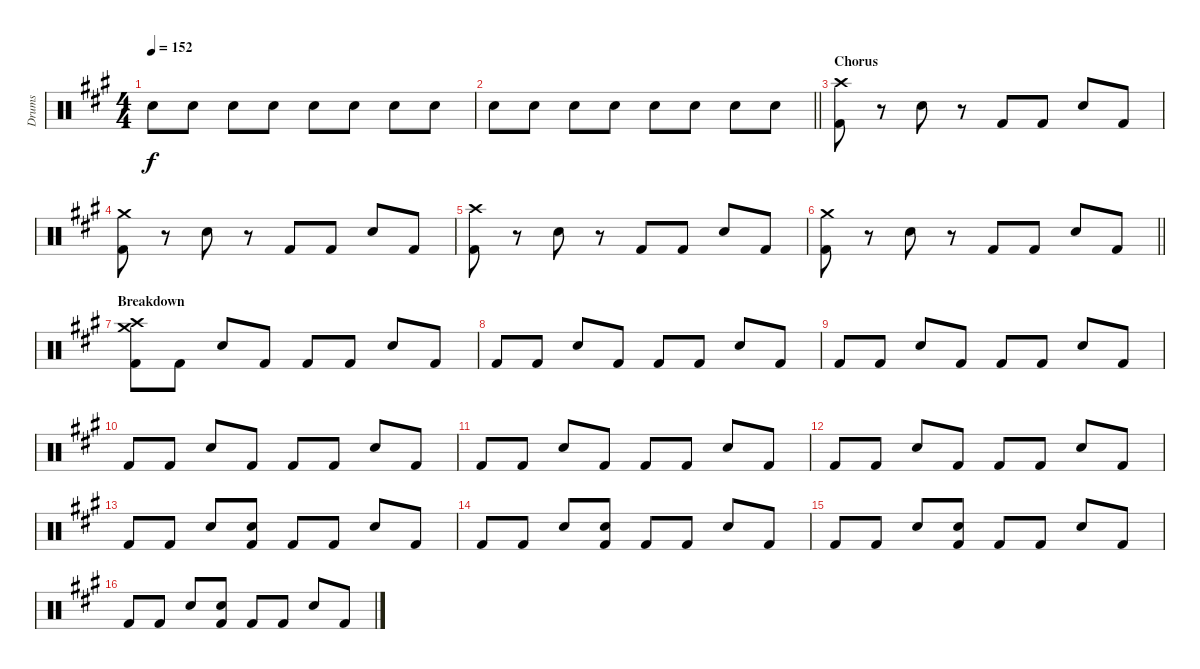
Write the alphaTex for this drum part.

\track ("Drums" "Drums") {instrument percussion}
\staff {score}
\articulation defaults
\ts (4 4)
\tempo 152
\clef neutral
\ks a "Snare (hit) 2".8{dy f} "Snare (hit) 2".8 "Snare (hit) 2".8 "Snare (hit) 2".8 "Snare (hit) 2".8 "Snare (hit) 2".8 "Snare (hit) 2".8 "Snare (hit) 2".8
|
\barLineRight lightlight "Snare (hit) 2".8 "Snare (hit) 2".8 "Snare (hit) 2".8 "Snare (hit) 2".8 "Snare (hit) 2".8 "Snare (hit) 2".8 "Snare (hit) 2".8 "Snare (hit) 2".8
|
\section ("" "Chorus")
("Crash high (hit)" "Kick (hit) 2").8 r.8 "Snare (hit) 2".8 r.8 "Kick (hit) 2".8 "Kick (hit) 2".8 "Snare (hit) 2".8 "Kick (hit) 2".8 |
("Crash medium (hit)" "Kick (hit) 2").8 r.8 "Snare (hit) 2".8 r.8 "Kick (hit) 2".8 "Kick (hit) 2".8 "Snare (hit) 2".8 "Kick (hit) 2".8 |
("Crash high (hit)" "Kick (hit) 2").8 r.8 "Snare (hit) 2".8 r.8 "Kick (hit) 2".8 "Kick (hit) 2".8 "Snare (hit) 2".8 "Kick (hit) 2".8 |
\barLineRight lightlight
("Crash medium (hit)" "Kick (hit) 2").8 r.8 "Snare (hit) 2".8 r.8 "Kick (hit) 2".8 "Kick (hit) 2".8 "Snare (hit) 2".8 "Kick (hit) 2".8 |
\section ("" "Breakdown")
("Crash high (hit)" "Crash medium (hit)" "Kick (hit) 2").8 "Kick (hit) 2".8 "Snare (hit) 2".8 "Kick (hit) 2".8 "Kick (hit) 2".8 "Kick (hit) 2".8 "Snare (hit) 2".8 "Kick (hit) 2".8 |
"Kick (hit) 2".8 "Kick (hit) 2".8 "Snare (hit) 2".8 "Kick (hit) 2".8 "Kick (hit) 2".8 "Kick (hit) 2".8 "Snare (hit) 2".8 "Kick (hit) 2".8 |
"Kick (hit) 2".8 "Kick (hit) 2".8 "Snare (hit) 2".8 "Kick (hit) 2".8 "Kick (hit) 2".8 "Kick (hit) 2".8 "Snare (hit) 2".8 "Kick (hit) 2".8 |
"Kick (hit) 2".8 "Kick (hit) 2".8 "Snare (hit) 2".8 "Kick (hit) 2".8 "Kick (hit) 2".8 "Kick (hit) 2".8 "Snare (hit) 2".8 "Kick (hit) 2".8 |
"Kick (hit) 2".8 "Kick (hit) 2".8 "Snare (hit) 2".8 "Kick (hit) 2".8 "Kick (hit) 2".8 "Kick (hit) 2".8 "Snare (hit) 2".8 "Kick (hit) 2".8 |
"Kick (hit) 2".8 "Kick (hit) 2".8 "Snare (hit) 2".8 "Kick (hit) 2".8 "Kick (hit) 2".8 "Kick (hit) 2".8 "Snare (hit) 2".8 "Kick (hit) 2".8 |
"Kick (hit) 2".8 "Kick (hit) 2".8 "Snare (hit) 2".8 ("Snare (hit) 2" "Kick (hit) 2").8 "Kick (hit) 2".8 "Kick (hit) 2".8 "Snare (hit) 2".8 "Kick (hit) 2".8 |
"Kick (hit) 2".8 "Kick (hit) 2".8 "Snare (hit) 2".8 ("Snare (hit) 2" "Kick (hit) 2").8 "Kick (hit) 2".8 "Kick (hit) 2".8 "Snare (hit) 2".8 "Kick (hit) 2".8 |
"Kick (hit) 2".8 "Kick (hit) 2".8 "Snare (hit) 2".8 ("Snare (hit) 2" "Kick (hit) 2").8 "Kick (hit) 2".8 "Kick (hit) 2".8 "Snare (hit) 2".8 "Kick (hit) 2".8 |
"Kick (hit) 2".8 "Kick (hit) 2".8 "Snare (hit) 2".8 ("Snare (hit) 2" "Kick (hit) 2").8 "Kick (hit) 2".8 "Kick (hit) 2".8 "Snare (hit) 2".8 "Kick (hit) 2".8
